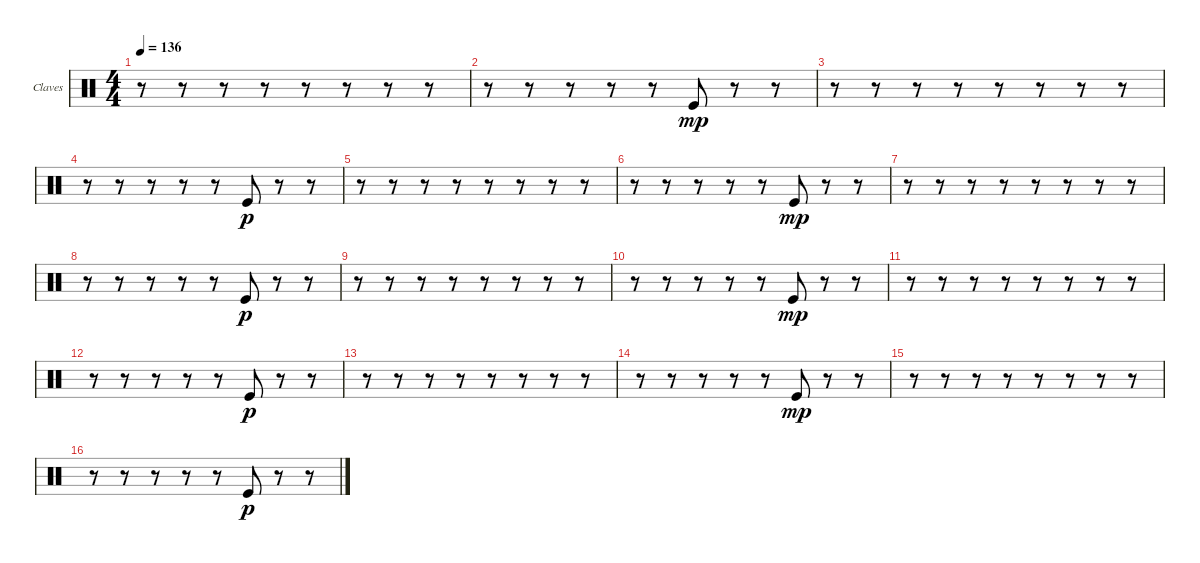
\bracketExtendMode groupsimilarinstruments
\firstSystemTrackNameOrientation horizontal
\otherSystemsTrackNameOrientation horizontal
\track ("Claves" "Claves") {instrument percussion}
\staff {score}
\articulation defaults
\ts (4 4)
\tempo 136
\clef neutral
\ks c
r.8{dy p} r.8 r.8 r.8 r.8 r.8 r.8 r.8 |
r.8 r.8 r.8 r.8 r.8 "Kick (hit)".8{dy mp} r.8 r.8 |
r.8 r.8 r.8 r.8 r.8 r.8 r.8 r.8 |
r.8 r.8 r.8 r.8 r.8 "Kick (hit)".8{dy p} r.8 r.8 |
r.8 r.8 r.8 r.8 r.8 r.8 r.8 r.8 |
r.8 r.8 r.8 r.8 r.8 "Kick (hit)".8{dy mp} r.8 r.8 |
r.8 r.8 r.8 r.8 r.8 r.8 r.8 r.8 |
r.8 r.8 r.8 r.8 r.8 "Kick (hit)".8{dy p} r.8 r.8 |
r.8 r.8 r.8 r.8 r.8 r.8 r.8 r.8 |
r.8 r.8 r.8 r.8 r.8 "Kick (hit)".8{dy mp} r.8 r.8 |
r.8 r.8 r.8 r.8 r.8 r.8 r.8 r.8 |
r.8 r.8 r.8 r.8 r.8 "Kick (hit)".8{dy p} r.8 r.8 |
r.8 r.8 r.8 r.8 r.8 r.8 r.8 r.8 |
r.8 r.8 r.8 r.8 r.8 "Kick (hit)".8{dy mp} r.8 r.8 |
r.8 r.8 r.8 r.8 r.8 r.8 r.8 r.8 |
r.8 r.8 r.8 r.8 r.8 "Kick (hit)".8{dy p} r.8 r.8
